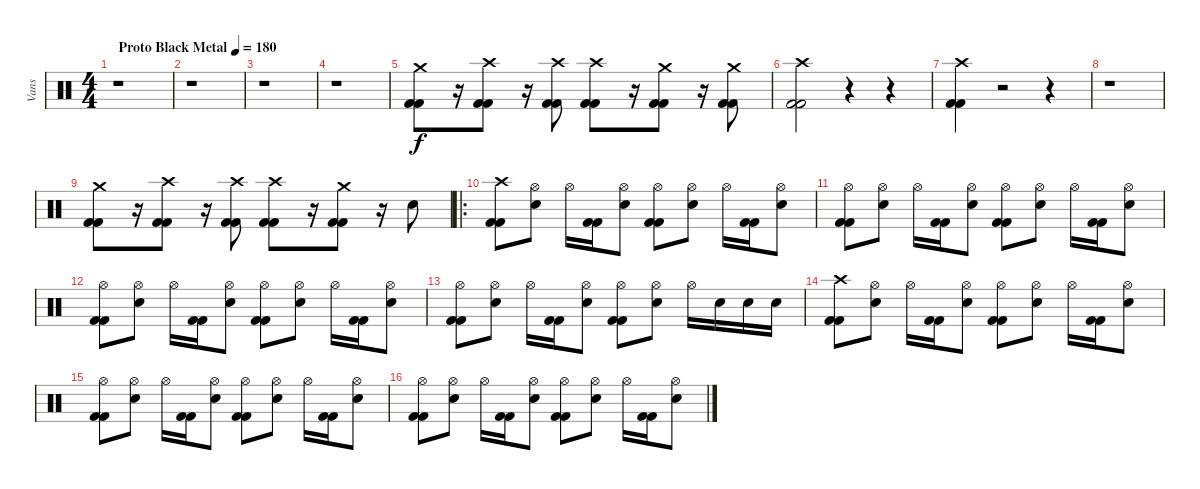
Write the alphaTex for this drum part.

\track ("Vans" "Vans") {instrument percussion}
\staff {score}
\articulation defaults
\ts (4 4)
\tempo (180 "Proto Black Metal")
\clef neutral
\ks c
r.1{dy f} |
r.1 |
r.1 |
r.1 |
("Crash medium (hit)" "Kick (hit) 2" "Kick (hit) 2").8 r.16 ("Crash high (hit)" "Kick (hit) 2" "Kick (hit) 2").8 r.16 ("Crash high (hit)" "Kick (hit) 2" "Kick (hit) 2").8 ("Crash high (hit)" "Kick (hit) 2" "Kick (hit) 2").8 r.16 ("Crash medium (hit)" "Kick (hit) 2" "Kick (hit) 2").8 r.16 ("Crash medium (hit)" "Kick (hit) 2" "Kick (hit) 2").8 |
("Crash high (hit)" "Kick (hit) 2" "Kick (hit) 2").2 r.4 r.4 |
("Crash high (hit)" "Kick (hit) 2" "Kick (hit) 2").4 r.2 r.4 |
r.1 |
("Crash medium (hit)" "Kick (hit) 2" "Kick (hit) 2").8 r.16 ("Crash high (hit)" "Kick (hit) 2" "Kick (hit) 2").8 r.16 ("Crash high (hit)" "Kick (hit) 2" "Kick (hit) 2").8 ("Crash high (hit)" "Kick (hit) 2" "Kick (hit) 2").8 r.16 ("Crash medium (hit)" "Kick (hit) 2" "Kick (hit) 2").8 r.16 "Snare (hit) 2".8 |
\ro
("Crash high (hit)" "Kick (hit) 2" "Kick (hit) 2").8 ("Hi-Hat (open)" "Snare (hit) 2").8 "Hi-Hat (open)".16 ("Kick (hit) 2" "Kick (hit) 2").16 ("Hi-Hat (open)" "Snare (hit) 2").8 ("Hi-Hat (open)" "Kick (hit) 2" "Kick (hit) 2").8 ("Hi-Hat (open)" "Snare (hit) 2").8 "Hi-Hat (open)".16 ("Kick (hit) 2" "Kick (hit) 2").16 ("Hi-Hat (open)" "Snare (hit) 2").8 |
("Hi-Hat (open)" "Kick (hit) 2" "Kick (hit) 2").8 ("Hi-Hat (open)" "Snare (hit) 2").8 "Hi-Hat (open)".16 ("Kick (hit) 2" "Kick (hit) 2").16 ("Hi-Hat (open)" "Snare (hit) 2").8 ("Hi-Hat (open)" "Kick (hit) 2" "Kick (hit) 2").8 ("Hi-Hat (open)" "Snare (hit) 2").8 "Hi-Hat (open)".16 ("Kick (hit) 2" "Kick (hit) 2").16 ("Hi-Hat (open)" "Snare (hit) 2").8 |
("Hi-Hat (open)" "Kick (hit) 2" "Kick (hit) 2").8 ("Hi-Hat (open)" "Snare (hit) 2").8 "Hi-Hat (open)".16 ("Kick (hit) 2" "Kick (hit) 2").16 ("Hi-Hat (open)" "Snare (hit) 2").8 ("Hi-Hat (open)" "Kick (hit) 2" "Kick (hit) 2").8 ("Hi-Hat (open)" "Snare (hit) 2").8 "Hi-Hat (open)".16 ("Kick (hit) 2" "Kick (hit) 2").16 ("Hi-Hat (open)" "Snare (hit) 2").8 |
("Hi-Hat (open)" "Kick (hit) 2" "Kick (hit) 2").8 ("Hi-Hat (open)" "Snare (hit) 2").8 "Hi-Hat (open)".16 ("Kick (hit) 2" "Kick (hit) 2").16 ("Hi-Hat (open)" "Snare (hit) 2").8 ("Hi-Hat (open)" "Kick (hit) 2" "Kick (hit) 2").8 ("Hi-Hat (open)" "Snare (hit) 2").8 "Hi-Hat (open)".16 "Snare (hit) 2".16 "Snare (hit) 2".16 "Snare (hit) 2".16 |
("Crash high (hit)" "Kick (hit) 2" "Kick (hit) 2").8 ("Hi-Hat (open)" "Snare (hit) 2").8 "Hi-Hat (open)".16 ("Kick (hit) 2" "Kick (hit) 2").16 ("Hi-Hat (open)" "Snare (hit) 2").8 ("Hi-Hat (open)" "Kick (hit) 2" "Kick (hit) 2").8 ("Hi-Hat (open)" "Snare (hit) 2").8 "Hi-Hat (open)".16 ("Kick (hit) 2" "Kick (hit) 2").16 ("Hi-Hat (open)" "Snare (hit) 2").8 |
("Hi-Hat (open)" "Kick (hit) 2" "Kick (hit) 2").8 ("Hi-Hat (open)" "Snare (hit) 2").8 "Hi-Hat (open)".16 ("Kick (hit) 2" "Kick (hit) 2").16 ("Hi-Hat (open)" "Snare (hit) 2").8 ("Hi-Hat (open)" "Kick (hit) 2" "Kick (hit) 2").8 ("Hi-Hat (open)" "Snare (hit) 2").8 "Hi-Hat (open)".16 ("Kick (hit) 2" "Kick (hit) 2").16 ("Hi-Hat (open)" "Snare (hit) 2").8 |
("Hi-Hat (open)" "Kick (hit) 2" "Kick (hit) 2").8 ("Hi-Hat (open)" "Snare (hit) 2").8 "Hi-Hat (open)".16 ("Kick (hit) 2" "Kick (hit) 2").16 ("Hi-Hat (open)" "Snare (hit) 2").8 ("Hi-Hat (open)" "Kick (hit) 2" "Kick (hit) 2").8 ("Hi-Hat (open)" "Snare (hit) 2").8 "Hi-Hat (open)".16 ("Kick (hit) 2" "Kick (hit) 2").16 ("Hi-Hat (open)" "Snare (hit) 2").8
